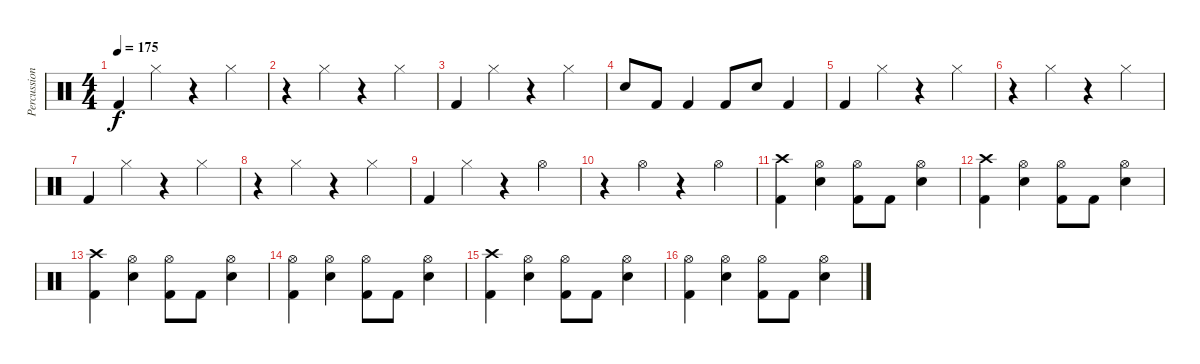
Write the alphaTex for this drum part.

\track ("Percussion" "Percussion") {instrument percussion}
\staff {score}
\articulation defaults
\ts (4 4)
\tempo 175
\clef neutral
\ks c "Kick (hit) 2".4{dy f} "Hi-Hat (closed)".4
r.4 "Hi-Hat (closed)".4 |
r.4 "Hi-Hat (closed)".4 r.4 "Hi-Hat (closed)".4 |
"Kick (hit) 2".4 "Hi-Hat (closed)".4 r.4 "Hi-Hat (closed)".4 |
"Snare (hit) 2".8 "Kick (hit) 2".8 "Kick (hit) 2".4 "Kick (hit) 2".8 "Snare (hit) 2".8 "Kick (hit) 2".4 |
"Kick (hit) 2".4 "Hi-Hat (closed)".4 r.4 "Hi-Hat (closed)".4 |
r.4 "Hi-Hat (closed)".4 r.4 "Hi-Hat (closed)".4 |
"Kick (hit) 2".4 "Hi-Hat (closed)".4 r.4 "Hi-Hat (closed)".4 |
r.4 "Hi-Hat (closed)".4 r.4 "Hi-Hat (closed)".4 |
"Kick (hit) 2".4{volume 10} "Hi-Hat (closed)".4 r.4 "Hi-Hat (open)".4 |
r.4 "Hi-Hat (open)".4 r.4 "Hi-Hat (open)".4 |
("Crash high (hit)" "Kick (hit) 2").4 ("Hi-Hat (open)" "Snare (hit) 2").4 ("Hi-Hat (open)" "Kick (hit) 2").8 "Kick (hit) 2".8 ("Hi-Hat (open)" "Snare (hit) 2").4 |
("Crash high (hit)" "Kick (hit) 2").4 ("Hi-Hat (open)" "Snare (hit) 2").4 ("Hi-Hat (open)" "Kick (hit) 2").8 "Kick (hit) 2".8 ("Hi-Hat (open)" "Snare (hit) 2").4 |
("Crash high (hit)" "Kick (hit) 2").4 ("Hi-Hat (open)" "Snare (hit) 2").4 ("Hi-Hat (open)" "Kick (hit) 2").8 "Kick (hit) 2".8 ("Hi-Hat (open)" "Snare (hit) 2").4 |
("Hi-Hat (open)" "Kick (hit) 2").4 ("Hi-Hat (open)" "Snare (hit) 2").4 ("Hi-Hat (open)" "Kick (hit) 2").8 "Kick (hit) 2".8 ("Hi-Hat (open)" "Snare (hit) 2").4 |
("Crash high (hit)" "Kick (hit) 2").4 ("Hi-Hat (open)" "Snare (hit) 2").4 ("Hi-Hat (open)" "Kick (hit) 2").8 "Kick (hit) 2".8 ("Hi-Hat (open)" "Snare (hit) 2").4 |
("Hi-Hat (open)" "Kick (hit) 2").4 ("Hi-Hat (open)" "Snare (hit) 2").4 ("Hi-Hat (open)" "Kick (hit) 2").8 "Kick (hit) 2".8 ("Hi-Hat (open)" "Snare (hit) 2").4
